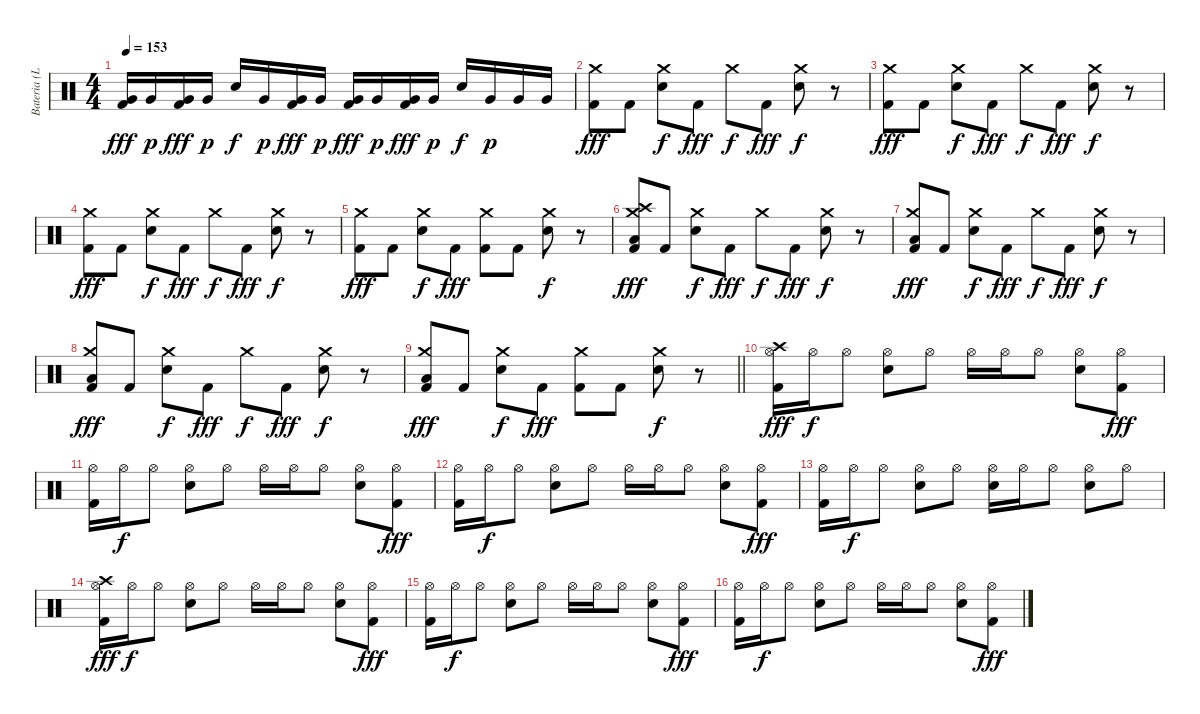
\track ("Bateria (Lars)" "Bateria (L") {instrument percussion}
\staff {score}
\articulation defaults
\ts (4 4)
\tempo 153
\clef neutral
\ks c
("Very Low Tom (hit)" "Kick (hit) 2").16{dy fff} "Very Low Tom (hit)".16{dy p} ("Very Low Tom (hit)" "Kick (hit) 2").16{dy fff} "Very Low Tom (hit)".16{dy p} "Electric Snare (hit)".16{dy f} "Very Low Tom (hit)".16{dy p} ("Very Low Tom (hit)" "Kick (hit) 2").16{dy fff} "Very Low Tom (hit)".16{dy p} ("Very Low Tom (hit)" "Kick (hit) 2").16{dy fff} "Very Low Tom (hit)".16{dy p} ("Very Low Tom (hit)" "Kick (hit) 2").16{dy fff} "Very Low Tom (hit)".16{dy p} "Electric Snare (hit)".16{dy f} "Very Low Tom (hit)".16{dy p} "Very Low Tom (hit)".16 "Very Low Tom (hit)".16 |
("Crash medium (hit)" "Kick (hit) 2").8{dy fff} "Kick (hit) 2".8 ("Crash medium (hit)" "Electric Snare (hit)").8{dy f} "Kick (hit) 2".8{dy fff} "Crash medium (hit)".8{dy f} "Kick (hit) 2".8{dy fff} ("Crash medium (hit)" "Electric Snare (hit)").8{dy f} r.8 |
("Crash medium (hit)" "Kick (hit) 2").8{dy fff} "Kick (hit) 2".8 ("Crash medium (hit)" "Electric Snare (hit)").8{dy f} "Kick (hit) 2".8{dy fff} "Crash medium (hit)".8{dy f} "Kick (hit) 2".8{dy fff} ("Crash medium (hit)" "Electric Snare (hit)").8{dy f} r.8 |
("Crash medium (hit)" "Kick (hit) 2").8{dy fff} "Kick (hit) 2".8 ("Crash medium (hit)" "Electric Snare (hit)").8{dy f} "Kick (hit) 2".8{dy fff} "Crash medium (hit)".8{dy f} "Kick (hit) 2".8{dy fff} ("Crash medium (hit)" "Electric Snare (hit)").8{dy f} r.8 |
("Crash medium (hit)" "Kick (hit) 2").8{dy fff} "Kick (hit) 2".8 ("Crash medium (hit)" "Electric Snare (hit)").8{dy f} "Kick (hit) 2".8{dy fff} ("Crash medium (hit)" "Kick (hit) 2").8 "Kick (hit) 2".8 ("Crash medium (hit)" "Electric Snare (hit)").8{dy f} r.8 |
("Crash medium (hit)" "Crash high (hit)" "Low Floor Tom (hit)" "Kick (hit) 2").8{dy fff} "Kick (hit) 2".8 ("Crash medium (hit)" "Electric Snare (hit)").8{dy f} "Kick (hit) 2".8{dy fff} "Crash medium (hit)".8{dy f} "Kick (hit) 2".8{dy fff} ("Crash medium (hit)" "Electric Snare (hit)").8{dy f} r.8 |
("Crash medium (hit)" "Low Floor Tom (hit)" "Kick (hit) 2").8{dy fff} "Kick (hit) 2".8 ("Crash medium (hit)" "Electric Snare (hit)").8{dy f} "Kick (hit) 2".8{dy fff} "Crash medium (hit)".8{dy f} "Kick (hit) 2".8{dy fff} ("Crash medium (hit)" "Electric Snare (hit)").8{dy f} r.8 |
("Crash medium (hit)" "Low Floor Tom (hit)" "Kick (hit) 2").8{dy fff} "Kick (hit) 2".8 ("Crash medium (hit)" "Electric Snare (hit)").8{dy f} "Kick (hit) 2".8{dy fff} "Crash medium (hit)".8{dy f} "Kick (hit) 2".8{dy fff} ("Crash medium (hit)" "Electric Snare (hit)").8{dy f} r.8 |
\barLineRight lightlight
("Crash medium (hit)" "Low Floor Tom (hit)" "Kick (hit) 2").8{dy fff} "Kick (hit) 2".8 ("Crash medium (hit)" "Electric Snare (hit)").8{dy f} "Kick (hit) 2".8{dy fff} ("Crash medium (hit)" "Kick (hit) 2").8 "Kick (hit) 2".8 ("Crash medium (hit)" "Electric Snare (hit)").8{dy f} r.8 |
("Crash high (hit)" "Hi-Hat (open)" "Kick (hit) 2").16{dy fff} "Hi-Hat (open)".16{dy f} "Hi-Hat (open)".8 ("Hi-Hat (open)" "Electric Snare (hit)").8 "Hi-Hat (open)".8 "Hi-Hat (open)".16 "Hi-Hat (open)".16 "Hi-Hat (open)".8 ("Hi-Hat (open)" "Electric Snare (hit)").8 ("Hi-Hat (open)" "Kick (hit) 2").8{dy fff} |
("Hi-Hat (open)" "Kick (hit) 2").16 "Hi-Hat (open)".16{dy f} "Hi-Hat (open)".8 ("Hi-Hat (open)" "Electric Snare (hit)").8 "Hi-Hat (open)".8 "Hi-Hat (open)".16 "Hi-Hat (open)".16 "Hi-Hat (open)".8 ("Hi-Hat (open)" "Electric Snare (hit)").8 ("Hi-Hat (open)" "Kick (hit) 2").8{dy fff} |
("Hi-Hat (open)" "Kick (hit) 2").16 "Hi-Hat (open)".16{dy f} "Hi-Hat (open)".8 ("Hi-Hat (open)" "Electric Snare (hit)").8 "Hi-Hat (open)".8 "Hi-Hat (open)".16 "Hi-Hat (open)".16 "Hi-Hat (open)".8 ("Hi-Hat (open)" "Electric Snare (hit)").8 ("Hi-Hat (open)" "Kick (hit) 2").8{dy fff} |
("Hi-Hat (open)" "Kick (hit) 2").16 "Hi-Hat (open)".16{dy f} "Hi-Hat (open)".8 ("Hi-Hat (open)" "Electric Snare (hit)").8 "Hi-Hat (open)".8 ("Hi-Hat (open)" "Electric Snare (hit)").16 "Hi-Hat (open)".16 "Hi-Hat (open)".8 ("Hi-Hat (open)" "Electric Snare (hit)").8 "Hi-Hat (open)".8 |
("Crash high (hit)" "Hi-Hat (open)" "Kick (hit) 2").16{dy fff} "Hi-Hat (open)".16{dy f} "Hi-Hat (open)".8 ("Hi-Hat (open)" "Electric Snare (hit)").8 "Hi-Hat (open)".8 "Hi-Hat (open)".16 "Hi-Hat (open)".16 "Hi-Hat (open)".8 ("Hi-Hat (open)" "Electric Snare (hit)").8 ("Hi-Hat (open)" "Kick (hit) 2").8{dy fff} |
("Hi-Hat (open)" "Kick (hit) 2").16 "Hi-Hat (open)".16{dy f} "Hi-Hat (open)".8 ("Hi-Hat (open)" "Electric Snare (hit)").8 "Hi-Hat (open)".8 "Hi-Hat (open)".16 "Hi-Hat (open)".16 "Hi-Hat (open)".8 ("Hi-Hat (open)" "Electric Snare (hit)").8 ("Hi-Hat (open)" "Kick (hit) 2").8{dy fff} |
("Hi-Hat (open)" "Kick (hit) 2").16 "Hi-Hat (open)".16{dy f} "Hi-Hat (open)".8 ("Hi-Hat (open)" "Electric Snare (hit)").8 "Hi-Hat (open)".8 "Hi-Hat (open)".16 "Hi-Hat (open)".16 "Hi-Hat (open)".8 ("Hi-Hat (open)" "Electric Snare (hit)").8 ("Hi-Hat (open)" "Kick (hit) 2").8{dy fff}
